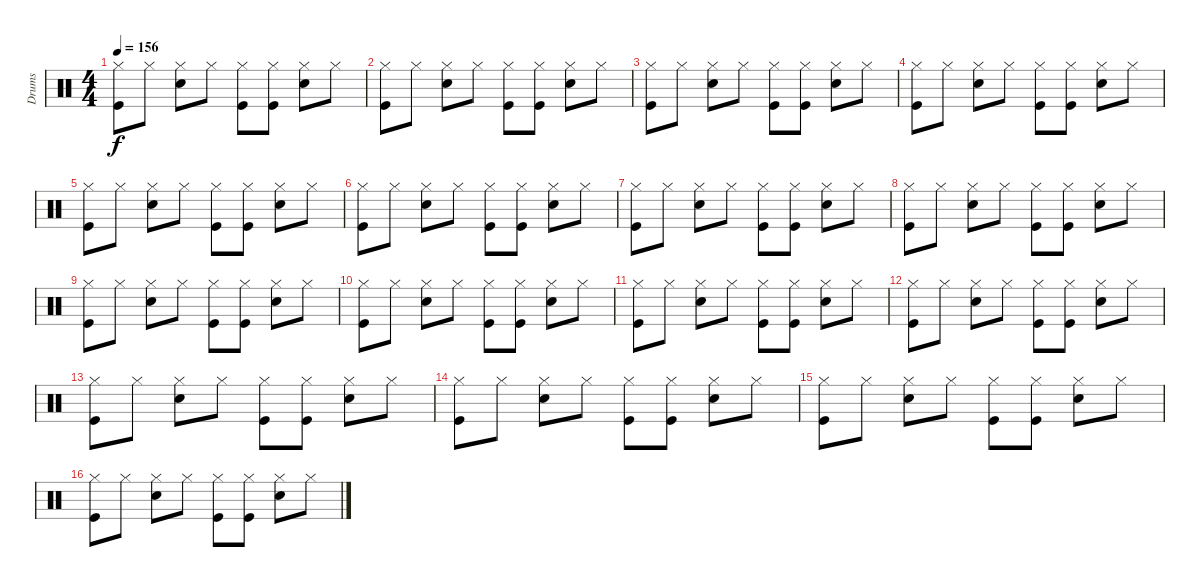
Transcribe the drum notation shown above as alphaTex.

\track ("Drums" "Drums") {instrument percussion}
\staff {score}
\articulation defaults
\ts (4 4)
\tempo 156
\clef neutral
\ks c
("Kick (hit)" "Hi-Hat (closed)").8{dy f} "Hi-Hat (closed)".8 ("Snare (hit) 2" "Hi-Hat (closed)").8 "Hi-Hat (closed)".8 ("Kick (hit)" "Hi-Hat (closed)").8 ("Kick (hit)" "Hi-Hat (closed)").8 ("Snare (hit) 2" "Hi-Hat (closed)").8 "Hi-Hat (closed)".8 |
("Kick (hit)" "Hi-Hat (closed)").8 "Hi-Hat (closed)".8 ("Snare (hit) 2" "Hi-Hat (closed)").8 "Hi-Hat (closed)".8 ("Kick (hit)" "Hi-Hat (closed)").8 ("Kick (hit)" "Hi-Hat (closed)").8 ("Snare (hit) 2" "Hi-Hat (closed)").8 "Hi-Hat (closed)".8 |
("Kick (hit)" "Hi-Hat (closed)").8 "Hi-Hat (closed)".8 ("Snare (hit) 2" "Hi-Hat (closed)").8 "Hi-Hat (closed)".8 ("Kick (hit)" "Hi-Hat (closed)").8 ("Kick (hit)" "Hi-Hat (closed)").8 ("Snare (hit) 2" "Hi-Hat (closed)").8 "Hi-Hat (closed)".8 |
("Kick (hit)" "Hi-Hat (closed)").8 "Hi-Hat (closed)".8 ("Snare (hit) 2" "Hi-Hat (closed)").8 "Hi-Hat (closed)".8 ("Kick (hit)" "Hi-Hat (closed)").8 ("Kick (hit)" "Hi-Hat (closed)").8 ("Snare (hit) 2" "Hi-Hat (closed)").8 "Hi-Hat (closed)".8 |
("Kick (hit)" "Hi-Hat (closed)").8 "Hi-Hat (closed)".8 ("Snare (hit) 2" "Hi-Hat (closed)").8 "Hi-Hat (closed)".8 ("Kick (hit)" "Hi-Hat (closed)").8 ("Kick (hit)" "Hi-Hat (closed)").8 ("Snare (hit) 2" "Hi-Hat (closed)").8 "Hi-Hat (closed)".8 |
("Kick (hit)" "Hi-Hat (closed)").8 "Hi-Hat (closed)".8 ("Snare (hit) 2" "Hi-Hat (closed)").8 "Hi-Hat (closed)".8 ("Kick (hit)" "Hi-Hat (closed)").8 ("Kick (hit)" "Hi-Hat (closed)").8 ("Snare (hit) 2" "Hi-Hat (closed)").8 "Hi-Hat (closed)".8 |
("Kick (hit)" "Hi-Hat (closed)").8 "Hi-Hat (closed)".8 ("Snare (hit) 2" "Hi-Hat (closed)").8 "Hi-Hat (closed)".8 ("Kick (hit)" "Hi-Hat (closed)").8 ("Kick (hit)" "Hi-Hat (closed)").8 ("Snare (hit) 2" "Hi-Hat (closed)").8 "Hi-Hat (closed)".8 |
("Kick (hit)" "Hi-Hat (closed)").8 "Hi-Hat (closed)".8 ("Snare (hit) 2" "Hi-Hat (closed)").8 "Hi-Hat (closed)".8 ("Kick (hit)" "Hi-Hat (closed)").8 ("Kick (hit)" "Hi-Hat (closed)").8 ("Snare (hit) 2" "Hi-Hat (closed)").8 "Hi-Hat (closed)".8 |
("Kick (hit)" "Hi-Hat (closed)").8 "Hi-Hat (closed)".8 ("Snare (hit) 2" "Hi-Hat (closed)").8 "Hi-Hat (closed)".8 ("Kick (hit)" "Hi-Hat (closed)").8 ("Kick (hit)" "Hi-Hat (closed)").8 ("Snare (hit) 2" "Hi-Hat (closed)").8 "Hi-Hat (closed)".8 |
("Kick (hit)" "Hi-Hat (closed)").8 "Hi-Hat (closed)".8 ("Snare (hit) 2" "Hi-Hat (closed)").8 "Hi-Hat (closed)".8 ("Kick (hit)" "Hi-Hat (closed)").8 ("Kick (hit)" "Hi-Hat (closed)").8 ("Snare (hit) 2" "Hi-Hat (closed)").8 "Hi-Hat (closed)".8 |
("Kick (hit)" "Hi-Hat (closed)").8 "Hi-Hat (closed)".8 ("Snare (hit) 2" "Hi-Hat (closed)").8 "Hi-Hat (closed)".8 ("Kick (hit)" "Hi-Hat (closed)").8 ("Kick (hit)" "Hi-Hat (closed)").8 ("Snare (hit) 2" "Hi-Hat (closed)").8 "Hi-Hat (closed)".8 |
("Kick (hit)" "Hi-Hat (closed)").8 "Hi-Hat (closed)".8 ("Snare (hit) 2" "Hi-Hat (closed)").8 "Hi-Hat (closed)".8 ("Kick (hit)" "Hi-Hat (closed)").8 ("Kick (hit)" "Hi-Hat (closed)").8 ("Snare (hit) 2" "Hi-Hat (closed)").8 "Hi-Hat (closed)".8 |
("Kick (hit)" "Hi-Hat (closed)").8 "Hi-Hat (closed)".8 ("Snare (hit) 2" "Hi-Hat (closed)").8 "Hi-Hat (closed)".8 ("Kick (hit)" "Hi-Hat (closed)").8 ("Kick (hit)" "Hi-Hat (closed)").8 ("Snare (hit) 2" "Hi-Hat (closed)").8 "Hi-Hat (closed)".8 |
("Kick (hit)" "Hi-Hat (closed)").8 "Hi-Hat (closed)".8 ("Snare (hit) 2" "Hi-Hat (closed)").8 "Hi-Hat (closed)".8 ("Kick (hit)" "Hi-Hat (closed)").8 ("Kick (hit)" "Hi-Hat (closed)").8 ("Snare (hit) 2" "Hi-Hat (closed)").8 "Hi-Hat (closed)".8 |
("Kick (hit)" "Hi-Hat (closed)").8 "Hi-Hat (closed)".8 ("Snare (hit) 2" "Hi-Hat (closed)").8 "Hi-Hat (closed)".8 ("Kick (hit)" "Hi-Hat (closed)").8 ("Kick (hit)" "Hi-Hat (closed)").8 ("Snare (hit) 2" "Hi-Hat (closed)").8 "Hi-Hat (closed)".8 |
("Kick (hit)" "Hi-Hat (closed)").8 "Hi-Hat (closed)".8 ("Snare (hit) 2" "Hi-Hat (closed)").8 "Hi-Hat (closed)".8 ("Kick (hit)" "Hi-Hat (closed)").8 ("Kick (hit)" "Hi-Hat (closed)").8 ("Snare (hit) 2" "Hi-Hat (closed)").8 "Hi-Hat (closed)".8
